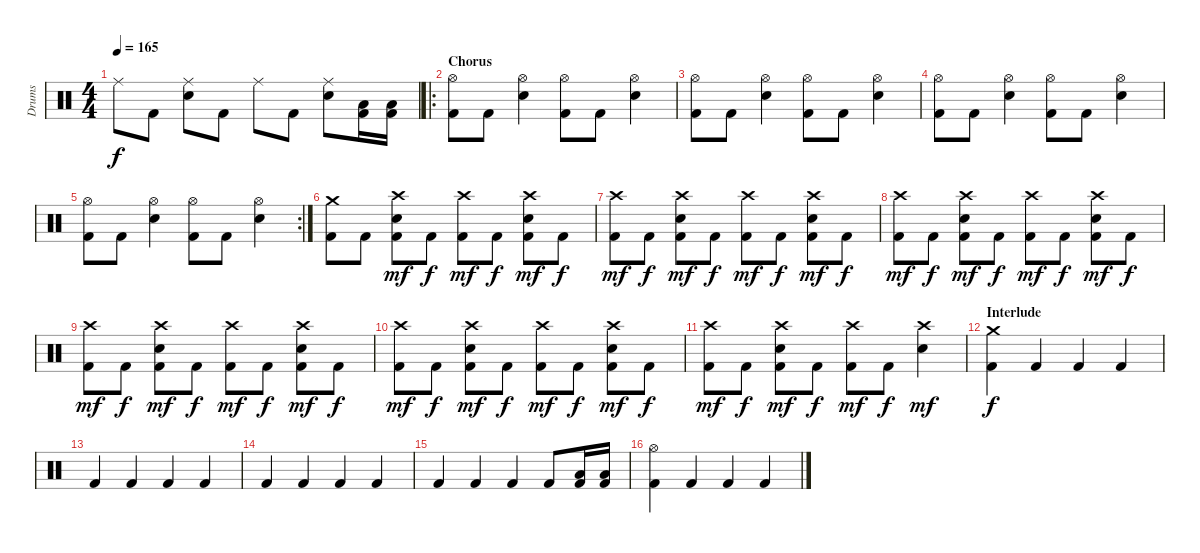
\track ("Drums" "Drums") {instrument percussion}
\staff {score}
\articulation defaults
\ts (4 4)
\tempo 165
\clef neutral
\ks c "Ride (middle)".8{dy f} "Kick (hit) 2".8
("Electric Snare (hit)" "Ride (middle)").8 "Kick (hit) 2".8 "Ride (middle)".8 "Kick (hit) 2".8 ("Electric Snare (hit)" "Ride (middle)").8 ("Kick (hit) 2" "Low Tom (hit)").16 ("Kick (hit) 2" "Low Tom (hit)").16 |
\ro
\section ("" "Chorus")
("Kick (hit) 2" "Hi-Hat (open)").8 "Kick (hit) 2".8 ("Electric Snare (hit)" "Hi-Hat (open)").4 ("Kick (hit) 2" "Hi-Hat (open)").8 "Kick (hit) 2".8 ("Electric Snare (hit)" "Hi-Hat (open)").4 |
("Kick (hit) 2" "Hi-Hat (open)").8 "Kick (hit) 2".8 ("Electric Snare (hit)" "Hi-Hat (open)").4 ("Kick (hit) 2" "Hi-Hat (open)").8 "Kick (hit) 2".8 ("Electric Snare (hit)" "Hi-Hat (open)").4 |
("Kick (hit) 2" "Hi-Hat (open)").8 "Kick (hit) 2".8 ("Electric Snare (hit)" "Hi-Hat (open)").4 ("Kick (hit) 2" "Hi-Hat (open)").8 "Kick (hit) 2".8 ("Electric Snare (hit)" "Hi-Hat (open)").4 |
\rc 2
("Kick (hit) 2" "Hi-Hat (open)").8 "Kick (hit) 2".8 ("Electric Snare (hit)" "Hi-Hat (open)").4 ("Kick (hit) 2" "Hi-Hat (open)").8 "Kick (hit) 2".8 ("Electric Snare (hit)" "Hi-Hat (open)").4 |
("Kick (hit) 2" "Crash medium (hit)").8 "Kick (hit) 2".8 ("Kick (hit) 2" "Electric Snare (hit)" "Crash high (hit)").8{dy mf} "Kick (hit) 2".8{dy f} ("Kick (hit) 2" "Crash high (hit)").8{dy mf} "Kick (hit) 2".8{dy f} ("Kick (hit) 2" "Electric Snare (hit)" "Crash high (hit)").8{dy mf} "Kick (hit) 2".8{dy f} |
("Kick (hit) 2" "Crash high (hit)").8{dy mf} "Kick (hit) 2".8{dy f} ("Kick (hit) 2" "Electric Snare (hit)" "Crash high (hit)").8{dy mf} "Kick (hit) 2".8{dy f} ("Kick (hit) 2" "Crash high (hit)").8{dy mf} "Kick (hit) 2".8{dy f} ("Kick (hit) 2" "Electric Snare (hit)" "Crash high (hit)").8{dy mf} "Kick (hit) 2".8{dy f} |
("Kick (hit) 2" "Crash high (hit)").8{dy mf} "Kick (hit) 2".8{dy f} ("Kick (hit) 2" "Electric Snare (hit)" "Crash high (hit)").8{dy mf} "Kick (hit) 2".8{dy f} ("Kick (hit) 2" "Crash high (hit)").8{dy mf} "Kick (hit) 2".8{dy f} ("Kick (hit) 2" "Electric Snare (hit)" "Crash high (hit)").8{dy mf} "Kick (hit) 2".8{dy f} |
("Kick (hit) 2" "Crash high (hit)").8{dy mf} "Kick (hit) 2".8{dy f} ("Kick (hit) 2" "Electric Snare (hit)" "Crash high (hit)").8{dy mf} "Kick (hit) 2".8{dy f} ("Kick (hit) 2" "Crash high (hit)").8{dy mf} "Kick (hit) 2".8{dy f} ("Kick (hit) 2" "Electric Snare (hit)" "Crash high (hit)").8{dy mf} "Kick (hit) 2".8{dy f} |
("Kick (hit) 2" "Crash high (hit)").8{dy mf} "Kick (hit) 2".8{dy f} ("Kick (hit) 2" "Electric Snare (hit)" "Crash high (hit)").8{dy mf} "Kick (hit) 2".8{dy f} ("Kick (hit) 2" "Crash high (hit)").8{dy mf} "Kick (hit) 2".8{dy f} ("Kick (hit) 2" "Electric Snare (hit)" "Crash high (hit)").8{dy mf} "Kick (hit) 2".8{dy f} |
("Kick (hit) 2" "Crash high (hit)").8{dy mf} "Kick (hit) 2".8{dy f} ("Kick (hit) 2" "Electric Snare (hit)" "Crash high (hit)").8{dy mf} "Kick (hit) 2".8{dy f} ("Kick (hit) 2" "Crash high (hit)").8{dy mf} "Kick (hit) 2".8{dy f} ("Electric Snare (hit)" "Crash high (hit)").4{dy mf} |
\section ("" "Interlude")
("Kick (hit) 2" "Crash medium (hit)").4{dy f} "Kick (hit) 2".4 "Kick (hit) 2".4 "Kick (hit) 2".4 |
"Kick (hit) 2".4 "Kick (hit) 2".4 "Kick (hit) 2".4 "Kick (hit) 2".4 |
"Kick (hit) 2".4 "Kick (hit) 2".4 "Kick (hit) 2".4 "Kick (hit) 2".4 |
"Kick (hit) 2".4 "Kick (hit) 2".4 "Kick (hit) 2".4 "Kick (hit) 2".8 ("Kick (hit) 2" "Low Tom (hit)").16 ("Kick (hit) 2" "Low Tom (hit)").16 |
("Kick (hit) 2" "Hi-Hat (open)").4 "Kick (hit) 2".4 "Kick (hit) 2".4 "Kick (hit) 2".4
